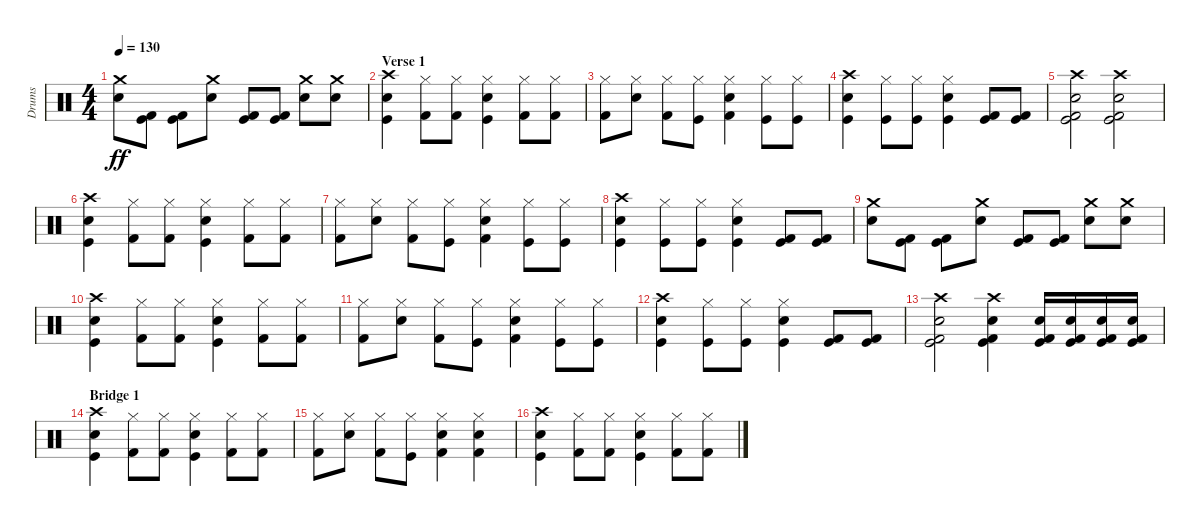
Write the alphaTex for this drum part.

\track ("Drums" "Drums") {instrument percussion}
\staff {score}
\articulation defaults
\ts (4 4)
\tempo 130
\clef neutral
\ks c
("Crash medium (hit)" "Snare (hit) 2").8{dy ff} ("Kick (hit) 2" "Kick (hit)").8 ("Kick (hit) 2" "Kick (hit)").8 ("Crash medium (hit)" "Snare (hit) 2").8 ("Kick (hit) 2" "Kick (hit)").8 ("Kick (hit) 2" "Kick (hit)").8 ("Crash medium (hit)" "Snare (hit) 2").8 ("Crash medium (hit)" "Snare (hit) 2").8 |
\section ("" "Verse 1")
("Crash high (hit)" "Snare (hit) 2" "Kick (hit)").4 ("Hi-Hat (closed)" "Kick (hit) 2").8 ("Hi-Hat (closed)" "Kick (hit) 2").8 ("Hi-Hat (closed)" "Snare (hit) 2" "Kick (hit)").4 ("Hi-Hat (closed)" "Kick (hit) 2").8 ("Hi-Hat (closed)" "Kick (hit) 2").8 |
("Hi-Hat (closed)" "Kick (hit) 2").8 ("Hi-Hat (closed)" "Snare (hit) 2").8 ("Hi-Hat (closed)" "Kick (hit) 2").8 ("Hi-Hat (closed)" "Kick (hit)").8 ("Hi-Hat (closed)" "Kick (hit) 2" "Snare (hit) 2").4 ("Hi-Hat (closed)" "Kick (hit)").8 ("Hi-Hat (closed)" "Kick (hit)").8 |
("Crash high (hit)" "Snare (hit) 2" "Kick (hit)").4 ("Hi-Hat (closed)" "Kick (hit)").8 ("Hi-Hat (closed)" "Kick (hit)").8 ("Hi-Hat (closed)" "Snare (hit) 2" "Kick (hit)").4 ("Kick (hit) 2" "Kick (hit)").8 ("Kick (hit) 2" "Kick (hit)").8 |
("Crash high (hit)" "Snare (hit) 2" "Kick (hit) 2" "Kick (hit)").2 ("Crash high (hit)" "Snare (hit) 2" "Kick (hit) 2" "Kick (hit)").2 |
("Crash high (hit)" "Snare (hit) 2" "Kick (hit)").4 ("Hi-Hat (closed)" "Kick (hit) 2").8 ("Hi-Hat (closed)" "Kick (hit) 2").8 ("Hi-Hat (closed)" "Snare (hit) 2" "Kick (hit)").4 ("Hi-Hat (closed)" "Kick (hit) 2").8 ("Hi-Hat (closed)" "Kick (hit) 2").8 |
("Hi-Hat (closed)" "Kick (hit) 2").8 ("Hi-Hat (closed)" "Snare (hit) 2").8 ("Hi-Hat (closed)" "Kick (hit) 2").8 ("Hi-Hat (closed)" "Kick (hit)").8 ("Hi-Hat (closed)" "Kick (hit) 2" "Snare (hit) 2").4 ("Hi-Hat (closed)" "Kick (hit)").8 ("Hi-Hat (closed)" "Kick (hit)").8 |
("Crash high (hit)" "Snare (hit) 2" "Kick (hit)").4 ("Hi-Hat (closed)" "Kick (hit)").8 ("Hi-Hat (closed)" "Kick (hit)").8 ("Hi-Hat (closed)" "Snare (hit) 2" "Kick (hit)").4 ("Kick (hit) 2" "Kick (hit)").8 ("Kick (hit) 2" "Kick (hit)").8 |
("Crash medium (hit)" "Snare (hit) 2").8 ("Kick (hit) 2" "Kick (hit)").8 ("Kick (hit) 2" "Kick (hit)").8 ("Crash medium (hit)" "Snare (hit) 2").8 ("Kick (hit) 2" "Kick (hit)").8 ("Kick (hit) 2" "Kick (hit)").8 ("Crash medium (hit)" "Snare (hit) 2").8 ("Crash medium (hit)" "Snare (hit) 2").8 |
("Crash high (hit)" "Snare (hit) 2" "Kick (hit)").4 ("Hi-Hat (closed)" "Kick (hit) 2").8 ("Hi-Hat (closed)" "Kick (hit) 2").8 ("Hi-Hat (closed)" "Snare (hit) 2" "Kick (hit)").4 ("Hi-Hat (closed)" "Kick (hit) 2").8 ("Hi-Hat (closed)" "Kick (hit) 2").8 |
("Hi-Hat (closed)" "Kick (hit) 2").8 ("Hi-Hat (closed)" "Snare (hit) 2").8 ("Hi-Hat (closed)" "Kick (hit) 2").8 ("Hi-Hat (closed)" "Kick (hit)").8 ("Hi-Hat (closed)" "Kick (hit) 2" "Snare (hit) 2").4 ("Hi-Hat (closed)" "Kick (hit)").8 ("Hi-Hat (closed)" "Kick (hit)").8 |
("Crash high (hit)" "Snare (hit) 2" "Kick (hit)").4 ("Hi-Hat (closed)" "Kick (hit)").8 ("Hi-Hat (closed)" "Kick (hit)").8 ("Hi-Hat (closed)" "Snare (hit) 2" "Kick (hit)").4 ("Kick (hit) 2" "Kick (hit)").8 ("Kick (hit) 2" "Kick (hit)").8 |
("Crash high (hit)" "Snare (hit) 2" "Kick (hit) 2" "Kick (hit)").2 ("Crash high (hit)" "Snare (hit) 2" "Kick (hit) 2" "Kick (hit)").4 ("Kick (hit) 2" "Snare (hit) 2" "Kick (hit)").16 ("Kick (hit) 2" "Snare (hit) 2" "Kick (hit)").16 ("Kick (hit) 2" "Snare (hit) 2" "Kick (hit)").16 ("Kick (hit) 2" "Snare (hit) 2" "Kick (hit)").16 |
\section ("" "Bridge 1")
("Crash high (hit)" "Snare (hit) 2" "Kick (hit)").4 ("Hi-Hat (closed)" "Kick (hit) 2").8 ("Hi-Hat (closed)" "Kick (hit) 2").8 ("Hi-Hat (closed)" "Snare (hit) 2" "Kick (hit)").4 ("Hi-Hat (closed)" "Kick (hit) 2").8 ("Hi-Hat (closed)" "Kick (hit) 2").8 |
("Hi-Hat (closed)" "Kick (hit) 2").8 ("Hi-Hat (closed)" "Snare (hit) 2").8 ("Hi-Hat (closed)" "Kick (hit) 2").8 ("Hi-Hat (closed)" "Kick (hit)").8 ("Hi-Hat (closed)" "Kick (hit) 2" "Snare (hit) 2").4 ("Hi-Hat (closed)" "Kick (hit) 2" "Snare (hit) 2").4 |
("Crash high (hit)" "Snare (hit) 2" "Kick (hit)").4 ("Hi-Hat (closed)" "Kick (hit) 2").8 ("Hi-Hat (closed)" "Kick (hit) 2").8 ("Hi-Hat (closed)" "Snare (hit) 2" "Kick (hit)").4 ("Hi-Hat (closed)" "Kick (hit) 2").8 ("Hi-Hat (closed)" "Kick (hit) 2").8
